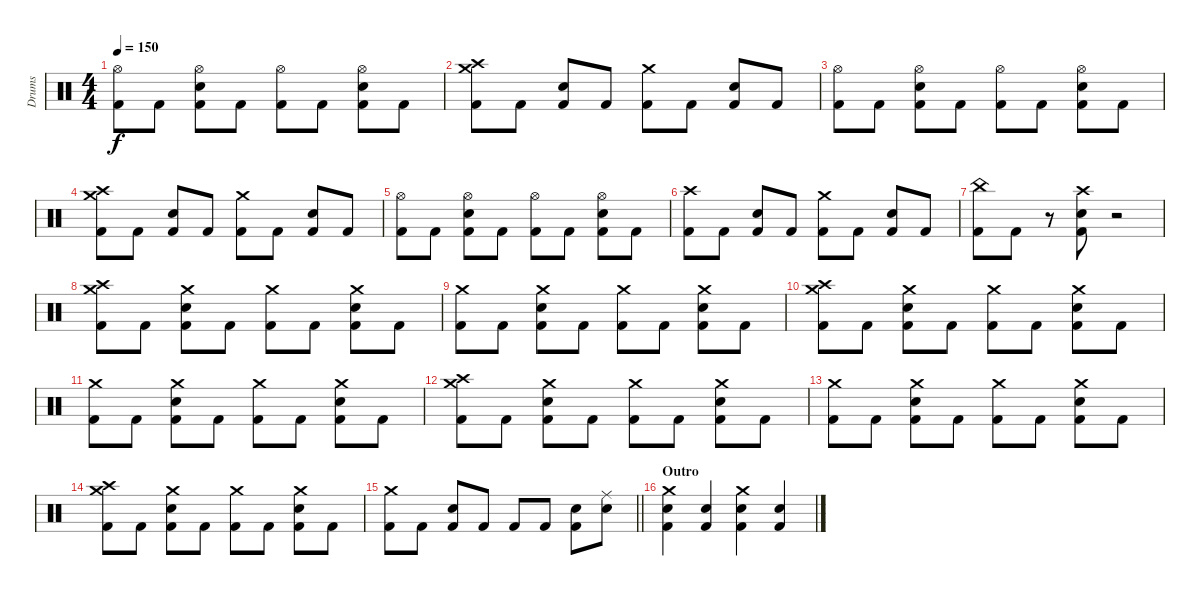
\track ("Drums" "Drums") {instrument percussion}
\staff {score}
\articulation defaults
\ts (4 4)
\tempo 150
\clef neutral
\ks c
("Hi-Hat (open)" "Kick (hit) 2").8{dy f} "Kick (hit) 2".8 ("Hi-Hat (open)" "Electric Snare (hit)" "Kick (hit) 2").8 "Kick (hit) 2".8 ("Hi-Hat (open)" "Kick (hit) 2").8 "Kick (hit) 2".8 ("Hi-Hat (open)" "Electric Snare (hit)" "Kick (hit) 2").8 "Kick (hit) 2".8 |
("Crash medium (hit)" "Crash high (hit)" "Kick (hit) 2").8 "Kick (hit) 2".8 ("Electric Snare (hit)" "Kick (hit) 2").8 "Kick (hit) 2".8 ("Crash medium (hit)" "Kick (hit) 2").8 "Kick (hit) 2".8 ("Electric Snare (hit)" "Kick (hit) 2").8 "Kick (hit) 2".8 |
("Hi-Hat (open)" "Kick (hit) 2").8 "Kick (hit) 2".8 ("Hi-Hat (open)" "Electric Snare (hit)" "Kick (hit) 2").8 "Kick (hit) 2".8 ("Hi-Hat (open)" "Kick (hit) 2").8 "Kick (hit) 2".8 ("Hi-Hat (open)" "Electric Snare (hit)" "Kick (hit) 2").8 "Kick (hit) 2".8 |
("Crash medium (hit)" "Crash high (hit)" "Kick (hit) 2").8 "Kick (hit) 2".8 ("Electric Snare (hit)" "Kick (hit) 2").8 "Kick (hit) 2".8 ("Crash medium (hit)" "Kick (hit) 2").8 "Kick (hit) 2".8 ("Electric Snare (hit)" "Kick (hit) 2").8 "Kick (hit) 2".8 |
("Hi-Hat (open)" "Kick (hit) 2").8 "Kick (hit) 2".8 ("Hi-Hat (open)" "Electric Snare (hit)" "Kick (hit) 2").8 "Kick (hit) 2".8 ("Hi-Hat (open)" "Kick (hit) 2").8 "Kick (hit) 2".8 ("Hi-Hat (open)" "Electric Snare (hit)" "Kick (hit) 2").8 "Kick (hit) 2".8 |
("Crash high (hit)" "Kick (hit) 2").8 "Kick (hit) 2".8 ("Electric Snare (hit)" "Kick (hit) 2").8 "Kick (hit) 2".8 ("Crash medium (hit)" "Kick (hit) 2").8 "Kick (hit) 2".8 ("Electric Snare (hit)" "Kick (hit) 2").8 "Kick (hit) 2".8 |
("China (hit)" "Kick (hit) 2").8 "Kick (hit) 2".8 r.8 ("Crash high (hit)" "Electric Snare (hit)" "Kick (hit) 2").8 r.2 |
("Crash medium (hit)" "Crash high (hit)" "Kick (hit) 2").8 "Kick (hit) 2".8 ("Crash medium (hit)" "Electric Snare (hit)" "Kick (hit) 2").8 "Kick (hit) 2".8 ("Crash medium (hit)" "Kick (hit) 2").8 "Kick (hit) 2".8 ("Crash medium (hit)" "Electric Snare (hit)" "Kick (hit) 2").8 "Kick (hit) 2".8 |
("Crash medium (hit)" "Kick (hit) 2").8 "Kick (hit) 2".8 ("Crash medium (hit)" "Electric Snare (hit)" "Kick (hit) 2").8 "Kick (hit) 2".8 ("Crash medium (hit)" "Kick (hit) 2").8 "Kick (hit) 2".8 ("Crash medium (hit)" "Electric Snare (hit)" "Kick (hit) 2").8 "Kick (hit) 2".8 |
("Crash medium (hit)" "Crash high (hit)" "Kick (hit) 2").8 "Kick (hit) 2".8 ("Crash medium (hit)" "Electric Snare (hit)" "Kick (hit) 2").8 "Kick (hit) 2".8 ("Crash medium (hit)" "Kick (hit) 2").8 "Kick (hit) 2".8 ("Crash medium (hit)" "Electric Snare (hit)" "Kick (hit) 2").8 "Kick (hit) 2".8 |
("Crash medium (hit)" "Kick (hit) 2").8 "Kick (hit) 2".8 ("Crash medium (hit)" "Electric Snare (hit)" "Kick (hit) 2").8 "Kick (hit) 2".8 ("Crash medium (hit)" "Kick (hit) 2").8 "Kick (hit) 2".8 ("Crash medium (hit)" "Electric Snare (hit)" "Kick (hit) 2").8 "Kick (hit) 2".8 |
("Crash medium (hit)" "Crash high (hit)" "Kick (hit) 2").8 "Kick (hit) 2".8 ("Crash medium (hit)" "Electric Snare (hit)" "Kick (hit) 2").8 "Kick (hit) 2".8 ("Crash medium (hit)" "Kick (hit) 2").8 "Kick (hit) 2".8 ("Crash medium (hit)" "Electric Snare (hit)" "Kick (hit) 2").8 "Kick (hit) 2".8 |
("Crash medium (hit)" "Kick (hit) 2").8 "Kick (hit) 2".8 ("Crash medium (hit)" "Electric Snare (hit)" "Kick (hit) 2").8 "Kick (hit) 2".8 ("Crash medium (hit)" "Kick (hit) 2").8 "Kick (hit) 2".8 ("Crash medium (hit)" "Electric Snare (hit)" "Kick (hit) 2").8 "Kick (hit) 2".8 |
("Crash medium (hit)" "Crash high (hit)" "Kick (hit) 2").8 "Kick (hit) 2".8 ("Crash medium (hit)" "Electric Snare (hit)" "Kick (hit) 2").8 "Kick (hit) 2".8 ("Crash medium (hit)" "Kick (hit) 2").8 "Kick (hit) 2".8 ("Crash medium (hit)" "Electric Snare (hit)" "Kick (hit) 2").8 "Kick (hit) 2".8 |
\barLineRight lightlight
("Crash medium (hit)" "Kick (hit) 2").8 "Kick (hit) 2".8 ("Electric Snare (hit)" "Kick (hit) 2").8 "Kick (hit) 2".8 "Kick (hit) 2".8 "Kick (hit) 2".8 ("Electric Snare (hit)" "Kick (hit) 2").8 ("Ride (middle)" "Electric Snare (hit)").8 |
\section ("" "Outro")
("Crash medium (hit)" "Electric Snare (hit)" "Kick (hit) 2").4 ("Electric Snare (hit)" "Kick (hit) 2").4 ("Crash medium (hit)" "Kick (hit) 2" "Electric Snare (hit)").4 ("Electric Snare (hit)" "Kick (hit) 2").4
